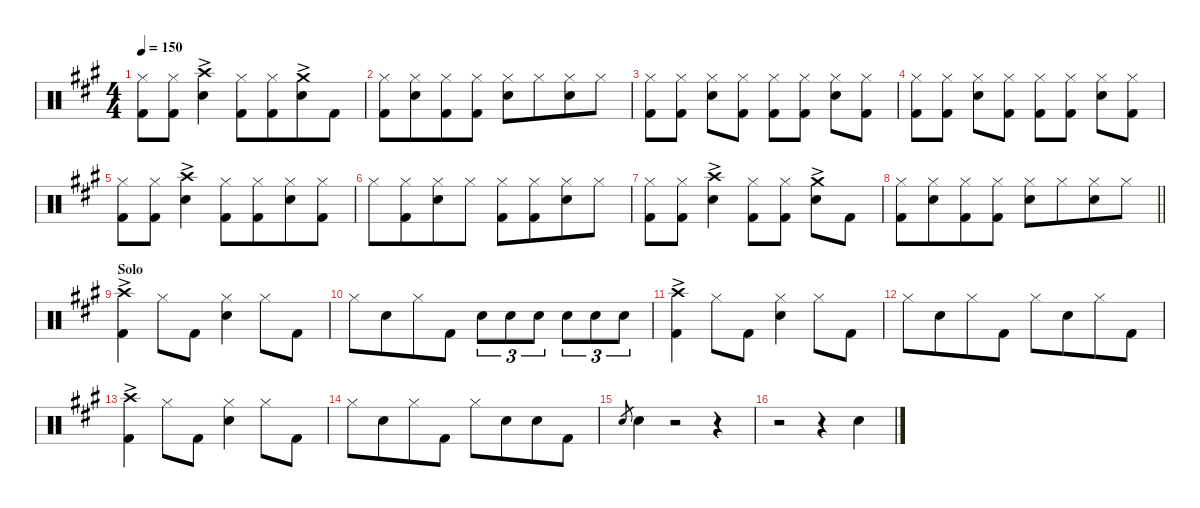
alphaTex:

\defaultSystemsLayout 4
\hideDynamics
\bracketExtendMode nobrackets
\singleTrackTrackNamePolicy hidden
\multiTrackTrackNamePolicy hidden
\firstSystemTrackNameMode fullname
\firstSystemTrackNameOrientation horizontal
\otherSystemsTrackNameOrientation horizontal
\track ("Drums" "drm.") {instrument percussion}
\staff {score}
\articulation defaults
\ts (4 4)
\tempo 150
\clef neutral
\ks a
("Hi-Hat (closed)"{acc forcenatural} "Kick (hit) 2"{acc forcenatural}).8{dy f beam Down} ("Hi-Hat (closed)"{acc forcenatural} "Kick (hit) 2"{acc forcenatural}).8{beam Down} ("Crash high (hit)"{ac acc forcenatural} "Snare (hit) 2"{acc forcenatural}).4{beam Down} ("Hi-Hat (closed)"{acc forcenatural} "Kick (hit) 2"{acc forcenatural}).8{beam Down} ("Hi-Hat (closed)"{acc forcenatural} "Kick (hit) 2"{acc forcenatural}).8{beam Down beam merge} ("Crash medium (hit)"{ac acc forcenatural} "Snare (hit) 2"{acc forcenatural}).8{beam Down} "Kick (hit) 2"{acc forcenatural}.8{beam Down} |
("Hi-Hat (closed)"{acc forcenatural} "Kick (hit) 2"{acc forcenatural}).8{beam Down} ("Hi-Hat (closed)"{acc forcenatural} "Snare (hit) 2"{acc forcenatural}).8{beam Down beam merge} ("Hi-Hat (closed)"{acc forcenatural} "Kick (hit) 2"{acc forcenatural}).8{beam Down} ("Hi-Hat (closed)"{acc forcenatural} "Kick (hit) 2"{acc forcenatural}).8{beam Down} ("Hi-Hat (closed)"{acc forcenatural} "Snare (hit) 2"{acc forcenatural}).8{beam Down} "Hi-Hat (closed)"{acc forcenatural}.8{beam Down beam merge} ("Hi-Hat (closed)"{acc forcenatural} "Snare (hit) 2"{acc forcenatural}).8{beam Down} "Hi-Hat (closed)"{acc forcenatural}.8{beam Down} |
("Hi-Hat (closed)"{acc forcenatural} "Kick (hit) 2"{acc forcenatural}).8{beam Down} ("Hi-Hat (closed)"{acc forcenatural} "Kick (hit) 2"{acc forcenatural}).8{beam Down} ("Hi-Hat (closed)"{acc forcenatural} "Snare (hit) 2"{acc forcenatural}).8{beam Down} ("Hi-Hat (closed)"{acc forcenatural} "Kick (hit) 2"{acc forcenatural}).8{beam Down} ("Hi-Hat (closed)"{acc forcenatural} "Kick (hit) 2"{acc forcenatural}).8{beam Down} ("Hi-Hat (closed)"{acc forcenatural} "Kick (hit) 2"{acc forcenatural}).8{beam Down} ("Hi-Hat (closed)"{acc forcenatural} "Snare (hit) 2"{acc forcenatural}).8{beam Down} ("Hi-Hat (closed)"{acc forcenatural} "Kick (hit) 2"{acc forcenatural}).8{beam Down} |
("Hi-Hat (closed)"{acc forcenatural} "Kick (hit) 2"{acc forcenatural}).8{beam Down} ("Hi-Hat (closed)"{acc forcenatural} "Kick (hit) 2"{acc forcenatural}).8{beam Down} ("Hi-Hat (closed)"{acc forcenatural} "Snare (hit) 2"{acc forcenatural}).8{beam Down} ("Hi-Hat (closed)"{acc forcenatural} "Kick (hit) 2"{acc forcenatural}).8{beam Down} ("Hi-Hat (closed)"{acc forcenatural} "Kick (hit) 2"{acc forcenatural}).8{beam Down} ("Hi-Hat (closed)"{acc forcenatural} "Kick (hit) 2"{acc forcenatural}).8{beam Down} ("Hi-Hat (closed)"{acc forcenatural} "Snare (hit) 2"{acc forcenatural}).8{beam Down} ("Hi-Hat (closed)"{acc forcenatural} "Kick (hit) 2"{acc forcenatural}).8{beam Down} |
("Hi-Hat (closed)"{acc forcenatural} "Kick (hit) 2"{acc forcenatural}).8{beam Down} ("Hi-Hat (closed)"{acc forcenatural} "Kick (hit) 2"{acc forcenatural}).8{beam Down} ("Crash high (hit)"{ac acc forcenatural} "Snare (hit) 2"{acc forcenatural}).4{beam Down} ("Hi-Hat (closed)"{acc forcenatural} "Kick (hit) 2"{acc forcenatural}).8{beam Down} ("Hi-Hat (closed)"{acc forcenatural} "Kick (hit) 2"{acc forcenatural}).8{beam Down beam merge} ("Hi-Hat (closed)"{acc forcenatural} "Snare (hit) 2"{acc forcenatural}).8{beam Down} ("Hi-Hat (closed)"{acc forcenatural} "Kick (hit) 2"{acc forcenatural}).8{beam Down} |
"Hi-Hat (closed)"{acc forcenatural}.8{beam Down} ("Hi-Hat (closed)"{acc forcenatural} "Kick (hit) 2"{acc forcenatural}).8{beam Down beam merge} ("Hi-Hat (closed)"{acc forcenatural} "Snare (hit) 2"{acc forcenatural}).8{beam Down} "Hi-Hat (closed)"{acc forcenatural}.8{beam Down} ("Hi-Hat (closed)"{acc forcenatural} "Kick (hit) 2"{acc forcenatural}).8{beam Down} ("Hi-Hat (closed)"{acc forcenatural} "Kick (hit) 2"{acc forcenatural}).8{beam Down beam merge} ("Hi-Hat (closed)"{acc forcenatural} "Snare (hit) 2"{acc forcenatural}).8{beam Down} "Hi-Hat (closed)"{acc forcenatural}.8{beam Down} |
("Hi-Hat (closed)"{acc forcenatural} "Kick (hit) 2"{acc forcenatural}).8{beam Down} ("Hi-Hat (closed)"{acc forcenatural} "Kick (hit) 2"{acc forcenatural}).8{beam Down} ("Crash high (hit)"{ac acc forcenatural} "Snare (hit) 2"{acc forcenatural}).4{beam Down} ("Hi-Hat (closed)"{acc forcenatural} "Kick (hit) 2"{acc forcenatural}).8{beam Down} ("Hi-Hat (closed)"{acc forcenatural} "Kick (hit) 2"{acc forcenatural}).8{beam Down} ("Crash medium (hit)"{ac acc forcenatural} "Snare (hit) 2"{acc forcenatural}).8{beam Down} "Kick (hit) 2"{acc forcenatural}.8{beam Down} |
\barLineRight lightlight
("Hi-Hat (closed)"{acc forcenatural} "Kick (hit) 2"{acc forcenatural}).8{beam Down} ("Hi-Hat (closed)"{acc forcenatural} "Snare (hit) 2"{acc forcenatural}).8{beam Down beam merge} ("Hi-Hat (closed)"{acc forcenatural} "Kick (hit) 2"{acc forcenatural}).8{beam Down} ("Hi-Hat (closed)"{acc forcenatural} "Kick (hit) 2"{acc forcenatural}).8{beam Down} ("Hi-Hat (closed)"{acc forcenatural} "Snare (hit) 2"{acc forcenatural}).8{beam Down} "Hi-Hat (closed)"{acc forcenatural}.8{beam Down beam merge} ("Hi-Hat (closed)"{acc forcenatural} "Snare (hit) 2"{acc forcenatural}).8{beam Down} "Hi-Hat (closed)"{acc forcenatural}.8{beam Down} |
\section ("" "Solo")
("Crash high (hit)"{ac acc forcenatural} "Kick (hit) 2"{acc forcenatural}).4{beam Down} "Hi-Hat (closed)"{acc forcenatural}.8{beam Down} "Kick (hit) 2"{acc forcenatural}.8{beam Down} ("Hi-Hat (closed)"{acc forcenatural} "Snare (hit) 2"{acc forcenatural}).4{beam Down} "Hi-Hat (closed)"{acc forcenatural}.8{beam Down} "Kick (hit) 2"{acc forcenatural}.8{beam Down} |
"Hi-Hat (closed)"{acc forcenatural}.8{beam Down} "Snare (hit) 2"{acc forcenatural}.8{beam Down beam merge} "Hi-Hat (closed)"{acc forcenatural}.8{beam Down} "Kick (hit) 2"{acc forcenatural}.8{beam Down} "Snare (hit) 2"{acc forcenatural}.8{tu (3 2) beam Down} "Snare (hit) 2"{acc forcenatural}.8{tu (3 2) beam Down} "Snare (hit) 2"{acc forcenatural}.8{tu (3 2) beam Down} "Snare (hit) 2"{acc forcenatural}.8{tu (3 2) beam Down} "Snare (hit) 2"{acc forcenatural}.8{tu (3 2) beam Down} "Snare (hit) 2"{acc forcenatural}.8{tu (3 2) beam Down} |
("Crash high (hit)"{ac acc forcenatural} "Kick (hit) 2"{acc forcenatural}).4{beam Down} "Hi-Hat (closed)"{acc forcenatural}.8{beam Down} "Kick (hit) 2"{acc forcenatural}.8{beam Down} ("Hi-Hat (closed)"{acc forcenatural} "Snare (hit) 2"{acc forcenatural}).4{beam Down} "Hi-Hat (closed)"{acc forcenatural}.8{beam Down} "Kick (hit) 2"{acc forcenatural}.8{beam Down} |
"Hi-Hat (closed)"{acc forcenatural}.8{beam Down} "Snare (hit) 2"{acc forcenatural}.8{beam Down beam merge} "Hi-Hat (closed)"{acc forcenatural}.8{beam Down} "Kick (hit) 2"{acc forcenatural}.8{beam Down} "Hi-Hat (closed)"{acc forcenatural}.8{beam Down} "Snare (hit) 2"{acc forcenatural}.8{beam Down beam merge} "Hi-Hat (closed)"{acc forcenatural}.8{beam Down} "Kick (hit) 2"{acc forcenatural}.8{beam Down} |
("Crash high (hit)"{ac acc forcenatural} "Kick (hit) 2"{acc forcenatural}).4{beam Down} "Hi-Hat (closed)"{acc forcenatural}.8{beam Down} "Kick (hit) 2"{acc forcenatural}.8{beam Down} ("Hi-Hat (closed)"{acc forcenatural} "Snare (hit) 2"{acc forcenatural}).4{beam Down} "Hi-Hat (closed)"{acc forcenatural}.8{beam Down} "Kick (hit) 2"{acc forcenatural}.8{beam Down} |
"Hi-Hat (closed)"{acc forcenatural}.8{beam Down} "Snare (hit) 2"{acc forcenatural}.8{beam Down beam merge} "Hi-Hat (closed)"{acc forcenatural}.8{beam Down} "Kick (hit) 2"{acc forcenatural}.8{beam Down} "Hi-Hat (closed)"{acc forcenatural}.8{beam Down} "Snare (hit) 2"{acc forcenatural}.8{beam Down beam merge} "Snare (hit) 2"{acc forcenatural}.8{beam Down} "Kick (hit) 2"{acc forcenatural}.8{beam Down} |
"Snare (hit) 2"{acc forcenatural}.8{gr dy mf beam Up} "Snare (hit) 2"{acc forcenatural}.4{dy f beam Down} r.2{beam Down} r.4{beam Down} |
r.2{beam Down} r.4{beam Down} "Snare (hit) 2"{acc forcenatural}.4{beam Down}
